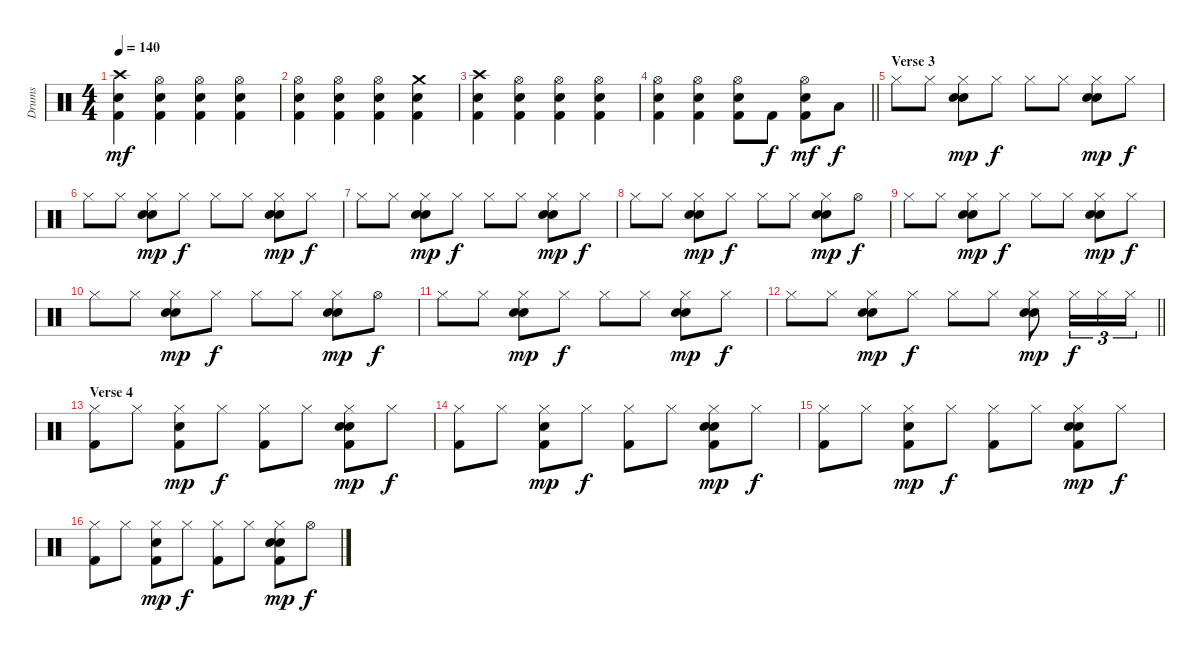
\track ("Drums" "Drums") {instrument percussion}
\staff {score}
\articulation defaults
\ts (4 4)
\tempo 140
\clef neutral
\ks c
("Crash high (hit)" "Electric Snare (hit)" "Kick (hit) 2").4{dy mf} ("Hi-Hat (open)" "Electric Snare (hit)" "Kick (hit) 2").4 ("Hi-Hat (open)" "Electric Snare (hit)" "Kick (hit) 2").4 ("Hi-Hat (open)" "Electric Snare (hit)" "Kick (hit) 2").4 |
("Hi-Hat (open)" "Electric Snare (hit)" "Kick (hit) 2").4 ("Hi-Hat (open)" "Electric Snare (hit)" "Kick (hit) 2").4 ("Hi-Hat (open)" "Electric Snare (hit)" "Kick (hit) 2").4 ("Crash medium (hit)" "Electric Snare (hit)" "Kick (hit) 2").4 |
("Crash high (hit)" "Electric Snare (hit)" "Kick (hit) 2").4 ("Hi-Hat (open)" "Electric Snare (hit)" "Kick (hit) 2").4 ("Hi-Hat (open)" "Electric Snare (hit)" "Kick (hit) 2").4 ("Hi-Hat (open)" "Electric Snare (hit)" "Kick (hit) 2").4 |
\barLineRight lightlight
("Hi-Hat (open)" "Electric Snare (hit)" "Kick (hit) 2").4 ("Hi-Hat (open)" "Electric Snare (hit)" "Kick (hit) 2").4 ("Hi-Hat (open)" "Electric Snare (hit)" "Kick (hit) 2").8 "Kick (hit) 2".8{dy f} ("Hi-Hat (open)" "Electric Snare (hit)" "Kick (hit) 2").8{dy mf} "Low Floor Tom (hit)".8{dy f} |
\section ("" "Verse 3")
"Hi-Hat (closed)".8 "Hi-Hat (closed)".8 ("Hi-Hat (closed)" "Hand Clap (hit)" "Electric Snare (hit)").8{dy mp} "Hi-Hat (closed)".8{dy f} "Hi-Hat (closed)".8 "Hi-Hat (closed)".8 ("Hi-Hat (closed)" "Hand Clap (hit)" "Electric Snare (hit)").8{dy mp} "Hi-Hat (closed)".8{dy f} |
"Hi-Hat (closed)".8 "Hi-Hat (closed)".8 ("Hi-Hat (closed)" "Hand Clap (hit)" "Electric Snare (hit)").8{dy mp} "Hi-Hat (closed)".8{dy f} "Hi-Hat (closed)".8 "Hi-Hat (closed)".8 ("Hi-Hat (closed)" "Hand Clap (hit)" "Electric Snare (hit)").8{dy mp} "Hi-Hat (closed)".8{dy f} |
"Hi-Hat (closed)".8 "Hi-Hat (closed)".8 ("Hi-Hat (closed)" "Hand Clap (hit)" "Electric Snare (hit)").8{dy mp} "Hi-Hat (closed)".8{dy f} "Hi-Hat (closed)".8 "Hi-Hat (closed)".8 ("Hi-Hat (closed)" "Hand Clap (hit)" "Electric Snare (hit)").8{dy mp} "Hi-Hat (closed)".8{dy f} |
"Hi-Hat (closed)".8 "Hi-Hat (closed)".8 ("Hi-Hat (closed)" "Hand Clap (hit)" "Electric Snare (hit)").8{dy mp} "Hi-Hat (closed)".8{dy f} "Hi-Hat (closed)".8 "Hi-Hat (closed)".8 ("Hi-Hat (closed)" "Hand Clap (hit)" "Electric Snare (hit)").8{dy mp} "Hi-Hat (open)".8{dy f} |
"Hi-Hat (closed)".8 "Hi-Hat (closed)".8 ("Hi-Hat (closed)" "Hand Clap (hit)" "Electric Snare (hit)").8{dy mp} "Hi-Hat (closed)".8{dy f} "Hi-Hat (closed)".8 "Hi-Hat (closed)".8 ("Hi-Hat (closed)" "Hand Clap (hit)" "Electric Snare (hit)").8{dy mp} "Hi-Hat (closed)".8{dy f} |
"Hi-Hat (closed)".8 "Hi-Hat (closed)".8 ("Hi-Hat (closed)" "Hand Clap (hit)" "Electric Snare (hit)").8{dy mp} "Hi-Hat (closed)".8{dy f} "Hi-Hat (closed)".8 "Hi-Hat (closed)".8 ("Hi-Hat (closed)" "Hand Clap (hit)" "Electric Snare (hit)").8{dy mp} "Hi-Hat (open)".8{dy f} |
"Hi-Hat (closed)".8 "Hi-Hat (closed)".8 ("Hi-Hat (closed)" "Hand Clap (hit)" "Electric Snare (hit)").8{dy mp} "Hi-Hat (closed)".8{dy f} "Hi-Hat (closed)".8 "Hi-Hat (closed)".8 ("Hi-Hat (closed)" "Hand Clap (hit)" "Electric Snare (hit)").8{dy mp} "Hi-Hat (closed)".8{dy f} |
\barLineRight lightlight "Hi-Hat (closed)".8 "Hi-Hat (closed)".8
("Hi-Hat (closed)" "Hand Clap (hit)" "Electric Snare (hit)").8{dy mp} "Hi-Hat (closed)".8{dy f} "Hi-Hat (closed)".8 "Hi-Hat (closed)".8 ("Hi-Hat (closed)" "Hand Clap (hit)" "Electric Snare (hit)").8{dy mp} "Hi-Hat (closed)".16{tu (3 2) dy f} "Hi-Hat (closed)".16{tu (3 2)} "Hi-Hat (closed)".16{tu (3 2)} |
\section ("" "Verse 4")
("Hi-Hat (closed)" "Kick (hit) 2").8 "Hi-Hat (closed)".8 ("Hi-Hat (closed)" "Electric Snare (hit)" "Kick (hit) 2").8{dy mp} "Hi-Hat (closed)".8{dy f} ("Hi-Hat (closed)" "Kick (hit) 2").8 "Hi-Hat (closed)".8 ("Hi-Hat (closed)" "Hand Clap (hit)" "Electric Snare (hit)" "Kick (hit) 2").8{dy mp} "Hi-Hat (closed)".8{dy f} |
("Hi-Hat (closed)" "Kick (hit) 2").8 "Hi-Hat (closed)".8 ("Hi-Hat (closed)" "Electric Snare (hit)" "Kick (hit) 2").8{dy mp} "Hi-Hat (closed)".8{dy f} ("Hi-Hat (closed)" "Kick (hit) 2").8 "Hi-Hat (closed)".8 ("Hi-Hat (closed)" "Hand Clap (hit)" "Electric Snare (hit)" "Kick (hit) 2").8{dy mp} "Hi-Hat (closed)".8{dy f} |
("Hi-Hat (closed)" "Kick (hit) 2").8 "Hi-Hat (closed)".8 ("Hi-Hat (closed)" "Electric Snare (hit)" "Kick (hit) 2").8{dy mp} "Hi-Hat (closed)".8{dy f} ("Hi-Hat (closed)" "Kick (hit) 2").8 "Hi-Hat (closed)".8 ("Hi-Hat (closed)" "Hand Clap (hit)" "Electric Snare (hit)" "Kick (hit) 2").8{dy mp} "Hi-Hat (closed)".8{dy f} |
("Hi-Hat (closed)" "Kick (hit) 2").8 "Hi-Hat (closed)".8 ("Hi-Hat (closed)" "Electric Snare (hit)" "Kick (hit) 2").8{dy mp} "Hi-Hat (closed)".8{dy f} ("Hi-Hat (closed)" "Kick (hit) 2").8 "Hi-Hat (closed)".8 ("Hi-Hat (closed)" "Hand Clap (hit)" "Electric Snare (hit)" "Kick (hit) 2").8{dy mp} "Hi-Hat (open)".8{dy f}
